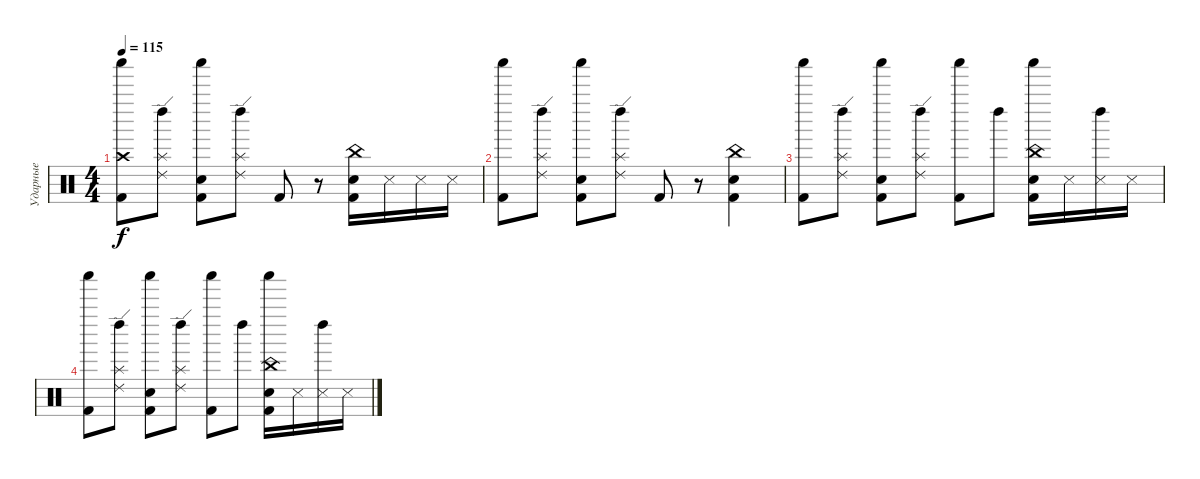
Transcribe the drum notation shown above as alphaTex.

\track ("Ударные" "Ударные") {instrument percussion}
\staff {score}
\articulation defaults
\ts (4 4)
\tempo 115
\clef neutral
\ks c
("Kick (hit) 2" "Shaker (hit)" "Crash high (hit)").8{dy f} ("Left Maraca (hit)" "Ride (edge) 2" "Splash (hit)").8 ("Kick (hit) 2" "Snare (hit) 2" "Shaker (hit)").8 ("Left Maraca (hit)" "Ride (edge) 2" "Splash (hit)").8 "Kick (hit) 2".8 r.8 ("Kick (hit) 2" "China (hit)" "Snare (hit) 2").16 "Snare (side stick) 3".16 "Snare (side stick) 3".16 "Snare (side stick) 3".16 |
("Kick (hit) 2" "Shaker (hit)").8 ("Left Maraca (hit)" "Ride (edge) 2" "Splash (hit)").8 ("Kick (hit) 2" "Snare (hit) 2" "Shaker (hit)").8 ("Left Maraca (hit)" "Ride (edge) 2" "Splash (hit)").8 "Kick (hit) 2".8 r.8 ("Kick (hit) 2" "China (hit)" "Snare (hit) 2").4 |
("Kick (hit) 2" "Shaker (hit)").8 ("Left Maraca (hit)" "Ride (edge) 2" "Splash (hit)").8 ("Kick (hit) 2" "Snare (hit) 2" "Shaker (hit)").8 ("Left Maraca (hit)" "Ride (edge) 2" "Splash (hit)").8 ("Kick (hit) 2" "Shaker (hit)").8 "Left Maraca (hit)".8 ("Kick (hit) 2" "China (hit)" "Snare (hit) 2" "Shaker (hit)").16 "Snare (side stick) 3".16 ("Snare (side stick) 3" "Left Maraca (hit)").16 "Snare (side stick) 3".16 |
("Kick (hit) 2" "Shaker (hit)").8 ("Left Maraca (hit)" "Ride (edge) 2" "Splash (hit)").8 ("Kick (hit) 2" "Snare (hit) 2" "Shaker (hit)").8 ("Left Maraca (hit)" "Ride (edge) 2" "Splash (hit)").8 ("Kick (hit) 2" "Shaker (hit)").8 "Left Maraca (hit)".8 ("Kick (hit) 2" "China (hit)" "Snare (hit) 2" "Shaker (hit)").16 "Snare (side stick) 3".16 ("Snare (side stick) 3" "Left Maraca (hit)").16 "Snare (side stick) 3".16
